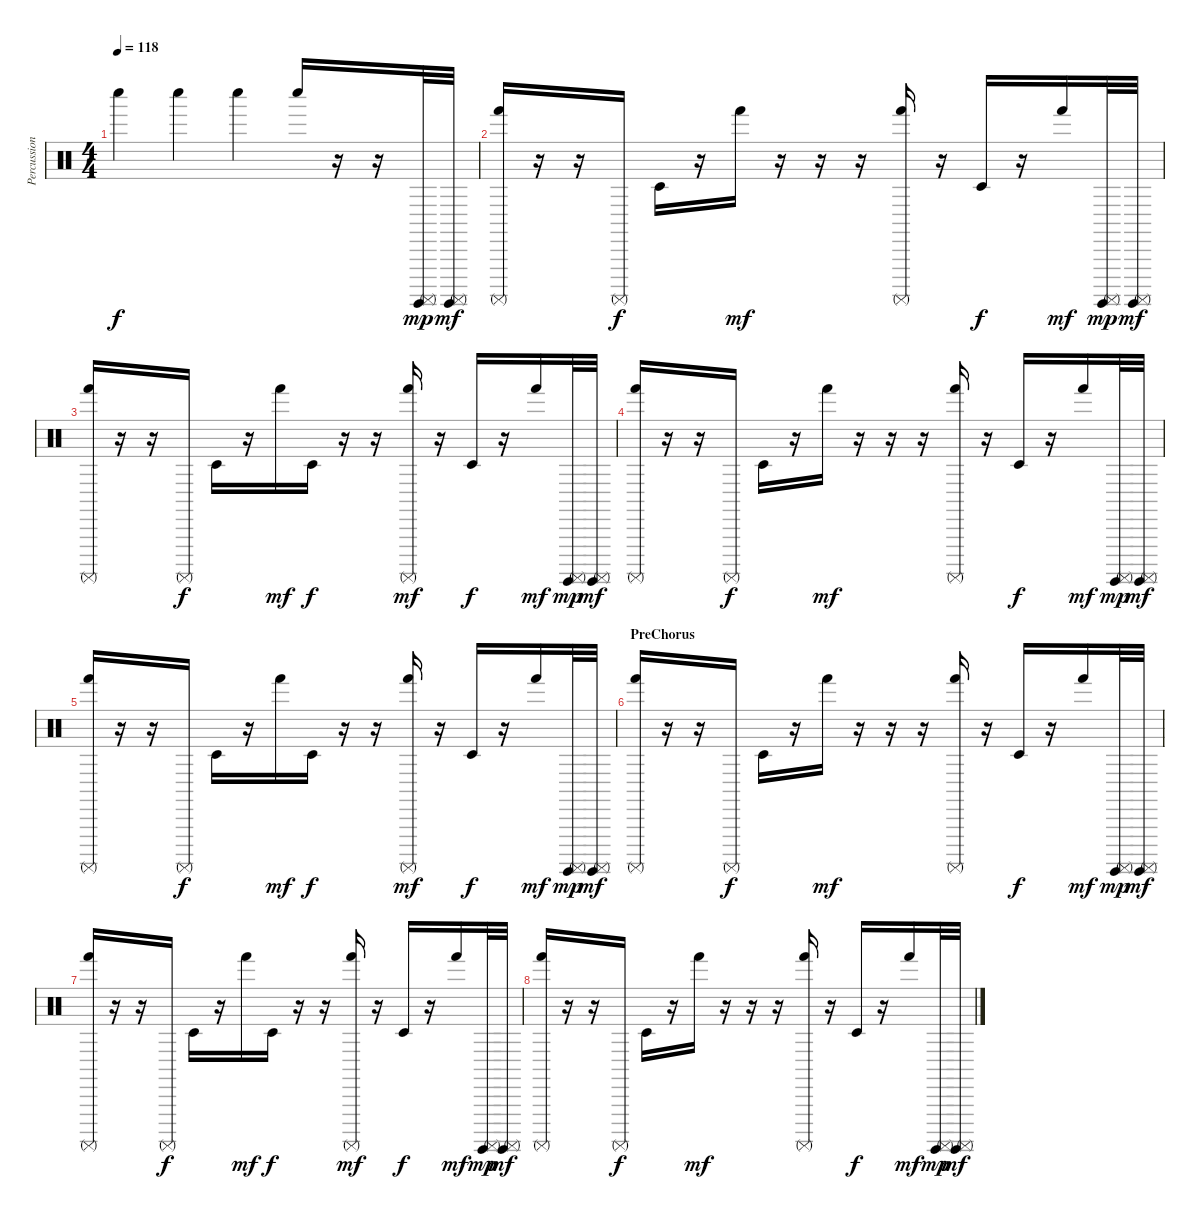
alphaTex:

\track ("Percussion" "Percussion") {instrument percussion}
\staff {score}
\articulation defaults
\ts (4 4)
\tempo 118
\clef neutral
\ks c "Whistle low (hit)".4{dy f} "Whistle low (hit)".4 "Whistle low (hit)".4 "Whistle low (hit)".16
r.16 r.16 ("Surdo (hit)" "Surdo (mute)").32{dy mp} ("Surdo (hit)" "Surdo (mute)").32{dy mf} |
("Hand (hit)" "Surdo (mute)").16 r.16 r.16 "Surdo (mute)".16{dy f} "Timbale low (hit)".16 r.16 "Hand (hit)".16{dy mf} r.16 r.16 r.16 ("Hand (hit)" "Surdo (mute)").16 r.16 "Timbale low (hit)".16{dy f} r.16 "Hand (hit)".16{dy mf} ("Surdo (hit)" "Surdo (mute)").32{dy mp} ("Surdo (hit)" "Surdo (mute)").32{dy mf} |
("Hand (hit)" "Surdo (mute)").16 r.16 r.16 "Surdo (mute)".16{dy f} "Timbale low (hit)".16 r.16 "Hand (hit)".16{dy mf} "Timbale low (hit)".16{dy f} r.16 r.16 ("Hand (hit)" "Surdo (mute)").16{dy mf} r.16 "Timbale low (hit)".16{dy f} r.16 "Hand (hit)".16{dy mf} ("Surdo (hit)" "Surdo (mute)").32{dy mp} ("Surdo (hit)" "Surdo (mute)").32{dy mf} |
("Hand (hit)" "Surdo (mute)").16 r.16 r.16 "Surdo (mute)".16{dy f} "Timbale low (hit)".16 r.16 "Hand (hit)".16{dy mf} r.16 r.16 r.16 ("Hand (hit)" "Surdo (mute)").16 r.16 "Timbale low (hit)".16{dy f} r.16 "Hand (hit)".16{dy mf} ("Surdo (hit)" "Surdo (mute)").32{dy mp} ("Surdo (hit)" "Surdo (mute)").32{dy mf} |
("Hand (hit)" "Surdo (mute)").16 r.16 r.16 "Surdo (mute)".16{dy f} "Timbale low (hit)".16 r.16 "Hand (hit)".16{dy mf} "Timbale low (hit)".16{dy f} r.16 r.16 ("Hand (hit)" "Surdo (mute)").16{dy mf} r.16 "Timbale low (hit)".16{dy f} r.16 "Hand (hit)".16{dy mf} ("Surdo (hit)" "Surdo (mute)").32{dy mp} ("Surdo (hit)" "Surdo (mute)").32{dy mf} |
\section ("" "PreChorus")
("Hand (hit)" "Surdo (mute)").16 r.16 r.16 "Surdo (mute)".16{dy f} "Timbale low (hit)".16 r.16 "Hand (hit)".16{dy mf} r.16 r.16 r.16 ("Hand (hit)" "Surdo (mute)").16 r.16 "Timbale low (hit)".16{dy f} r.16 "Hand (hit)".16{dy mf} ("Surdo (hit)" "Surdo (mute)").32{dy mp} ("Surdo (hit)" "Surdo (mute)").32{dy mf} |
("Hand (hit)" "Surdo (mute)").16 r.16 r.16 "Surdo (mute)".16{dy f} "Timbale low (hit)".16 r.16 "Hand (hit)".16{dy mf} "Timbale low (hit)".16{dy f} r.16 r.16 ("Hand (hit)" "Surdo (mute)").16{dy mf} r.16 "Timbale low (hit)".16{dy f} r.16 "Hand (hit)".16{dy mf} ("Surdo (hit)" "Surdo (mute)").32{dy mp} ("Surdo (hit)" "Surdo (mute)").32{dy mf} |
("Hand (hit)" "Surdo (mute)").16 r.16 r.16 "Surdo (mute)".16{dy f} "Timbale low (hit)".16 r.16 "Hand (hit)".16{dy mf} r.16 r.16 r.16 ("Hand (hit)" "Surdo (mute)").16 r.16 "Timbale low (hit)".16{dy f} r.16 "Hand (hit)".16{dy mf} ("Surdo (hit)" "Surdo (mute)").32{dy mp} ("Surdo (hit)" "Surdo (mute)").32{dy mf}
